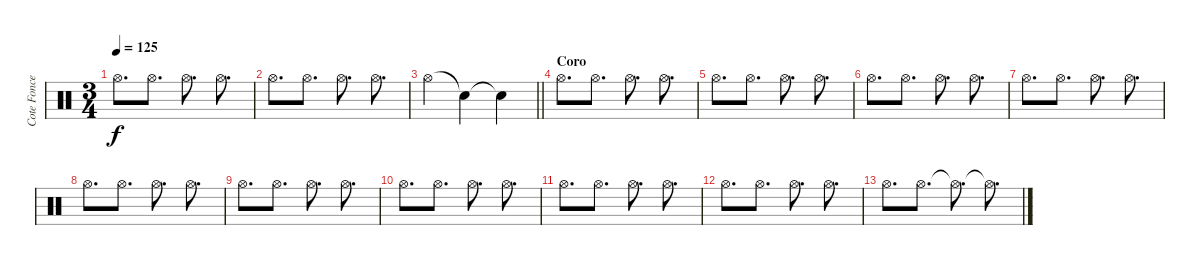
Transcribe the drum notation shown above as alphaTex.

\track ("Cote Foncea" "Cote Fonce") {instrument percussion}
\staff {score}
\articulation defaults
\ts (3 4)
\tempo 125
\clef neutral
\ks c "Hi-Hat (open)".8{d dy f} "Hi-Hat (open)".8{d} "Hi-Hat (open)".8{d} "Hi-Hat (open)".8{d}
|
"Hi-Hat (open)".8{d} "Hi-Hat (open)".8{d} "Hi-Hat (open)".8{d} "Hi-Hat (open)".8{d} |
\barLineRight lightlight "Hi-Hat (open)".4 "Snare (hit)"{t}.4 "Snare (hit)"{t}.4
|
\section ("" "Coro")
"Hi-Hat (open)".8{d volume 10} "Hi-Hat (open)".8{d} "Hi-Hat (open)".8{d} "Hi-Hat (open)".8{d} |
"Hi-Hat (open)".8{d} "Hi-Hat (open)".8{d} "Hi-Hat (open)".8{d} "Hi-Hat (open)".8{d} |
"Hi-Hat (open)".8{d} "Hi-Hat (open)".8{d} "Hi-Hat (open)".8{d} "Hi-Hat (open)".8{d} |
"Hi-Hat (open)".8{d} "Hi-Hat (open)".8{d} "Hi-Hat (open)".8{d} "Hi-Hat (open)".8{d} |
"Hi-Hat (open)".8{d} "Hi-Hat (open)".8{d} "Hi-Hat (open)".8{d} "Hi-Hat (open)".8{d} |
"Hi-Hat (open)".8{d} "Hi-Hat (open)".8{d} "Hi-Hat (open)".8{d} "Hi-Hat (open)".8{d} |
"Hi-Hat (open)".8{d} "Hi-Hat (open)".8{d} "Hi-Hat (open)".8{d} "Hi-Hat (open)".8{d} |
"Hi-Hat (open)".8{d volume 10} "Hi-Hat (open)".8{d} "Hi-Hat (open)".8{d} "Hi-Hat (open)".8{d} |
"Hi-Hat (open)".8{d} "Hi-Hat (open)".8{d} "Hi-Hat (open)".8{d} "Hi-Hat (open)".8{d} |
"Hi-Hat (open)".8{d} "Hi-Hat (open)".8{d} "Hi-Hat (open)"{t}.8{d} "Hi-Hat (open)"{t}.8{d}
